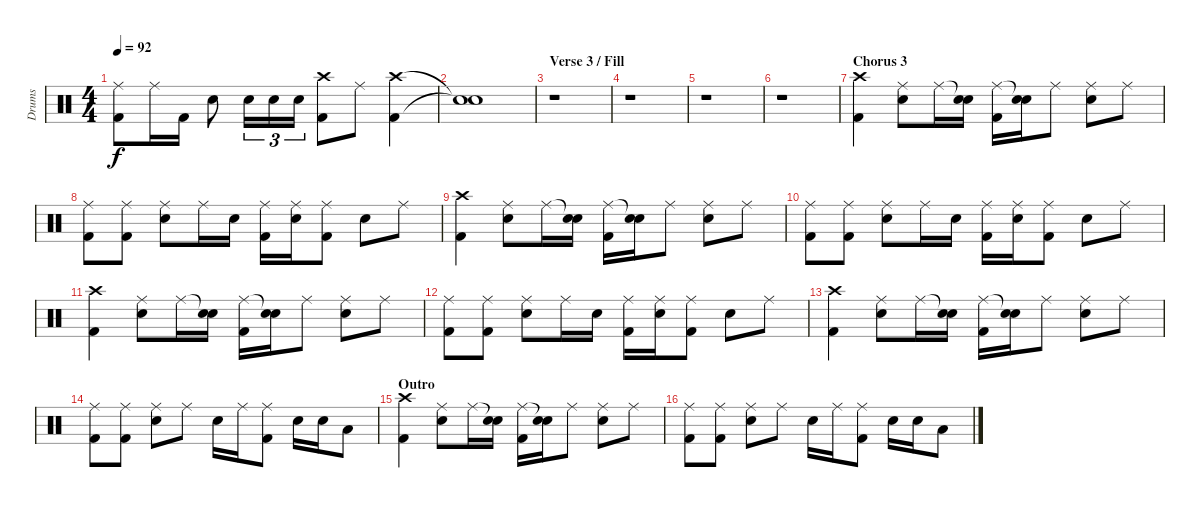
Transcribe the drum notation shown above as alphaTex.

\track ("Drums" "Drums") {instrument percussion}
\staff {score}
\articulation defaults
\ts (4 4)
\tempo 92
\clef neutral
\ks c
("Ride (middle)" "Kick (hit) 2").8{dy f} "Ride (middle)".16 "Kick (hit) 2".16 "Snare (hit) 2".8 "Snare (hit) 2".16{tu (3 2)} "Snare (hit) 2".16{tu (3 2)} "Snare (hit) 2".16{tu (3 2)} ("Crash high (hit)" "Kick (hit) 2").8 "Ride (middle)".8 ("Crash high (hit)" "Kick (hit) 2").4 |
("Snare (hit)"{t} "Snare (hit)"{t}).1 |
\section ("" "Verse 3 / Fill")
r.1 |
r.1 |
r.1 |
r.1 |
\section ("" "Chorus 3")
("Crash high (hit)" "Kick (hit) 2").4 ("Ride (middle)" "Snare (hit) 2").8 "Ride (middle)".16 ("Snare (hit)"{t} "Snare (hit) 2").16 ("Ride (middle)" "Kick (hit) 2").16 ("Snare (hit)"{t} "Snare (hit) 2").16 "Ride (middle)".8 ("Ride (middle)" "Snare (hit) 2").8 "Ride (middle)".8 |
("Ride (middle)" "Kick (hit) 2").8 ("Ride (middle)" "Kick (hit) 2").8 ("Ride (middle)" "Snare (hit) 2").8 "Ride (middle)".16 "Snare (hit) 2".16 ("Ride (middle)" "Kick (hit) 2").16 ("Ride (middle)" "Snare (hit) 2").16 ("Ride (middle)" "Kick (hit) 2").8 "Snare (hit) 2".8 "Ride (middle)".8 |
("Crash high (hit)" "Kick (hit) 2").4 ("Ride (middle)" "Snare (hit) 2").8 "Ride (middle)".16 ("Snare (hit)"{t} "Snare (hit) 2").16 ("Ride (middle)" "Kick (hit) 2").16 ("Snare (hit)"{t} "Snare (hit) 2").16 "Ride (middle)".8 ("Ride (middle)" "Snare (hit) 2").8 "Ride (middle)".8 |
("Ride (middle)" "Kick (hit) 2").8 ("Ride (middle)" "Kick (hit) 2").8 ("Ride (middle)" "Snare (hit) 2").8 "Ride (middle)".16 "Snare (hit) 2".16 ("Ride (middle)" "Kick (hit) 2").16 ("Ride (middle)" "Snare (hit) 2").16 ("Ride (middle)" "Kick (hit) 2").8 "Snare (hit) 2".8 "Ride (middle)".8 |
("Crash high (hit)" "Kick (hit) 2").4 ("Ride (middle)" "Snare (hit) 2").8 "Ride (middle)".16 ("Snare (hit)"{t} "Snare (hit) 2").16 ("Ride (middle)" "Kick (hit) 2").16 ("Snare (hit)"{t} "Snare (hit) 2").16 "Ride (middle)".8 ("Ride (middle)" "Snare (hit) 2").8 "Ride (middle)".8 |
("Ride (middle)" "Kick (hit) 2").8 ("Ride (middle)" "Kick (hit) 2").8 ("Ride (middle)" "Snare (hit) 2").8 "Ride (middle)".16 "Snare (hit) 2".16 ("Ride (middle)" "Kick (hit) 2").16 ("Ride (middle)" "Snare (hit) 2").16 ("Ride (middle)" "Kick (hit) 2").8 "Snare (hit) 2".8 "Ride (middle)".8 |
("Crash high (hit)" "Kick (hit) 2").4 ("Ride (middle)" "Snare (hit) 2").8 "Ride (middle)".16 ("Snare (hit)"{t} "Snare (hit) 2").16 ("Ride (middle)" "Kick (hit) 2").16 ("Snare (hit)"{t} "Snare (hit) 2").16 "Ride (middle)".8 ("Ride (middle)" "Snare (hit) 2").8 "Ride (middle)".8 |
("Ride (middle)" "Kick (hit) 2").8 ("Ride (middle)" "Kick (hit) 2").8 ("Ride (middle)" "Snare (hit) 2").8 "Ride (middle)".8 "Snare (hit) 2".16 "Ride (middle)".16 ("Ride (middle)" "Kick (hit) 2").8 "Snare (hit) 2".16 "Snare (hit) 2".16 "Low Floor Tom (hit)".8 |
\section ("" "Outro")
("Crash high (hit)" "Kick (hit) 2").4 ("Ride (middle)" "Snare (hit) 2").8 "Ride (middle)".16 ("Snare (hit)"{t} "Snare (hit) 2").16 ("Ride (middle)" "Kick (hit) 2").16 ("Snare (hit)"{t} "Snare (hit) 2").16 "Ride (middle)".8 ("Ride (middle)" "Snare (hit) 2").8 "Ride (middle)".8 |
("Ride (middle)" "Kick (hit) 2").8 ("Ride (middle)" "Kick (hit) 2").8 ("Ride (middle)" "Snare (hit) 2").8 "Ride (middle)".8 "Snare (hit) 2".16 "Ride (middle)".16 ("Ride (middle)" "Kick (hit) 2").8 "Snare (hit) 2".16 "Snare (hit) 2".16 "Low Floor Tom (hit)".8
